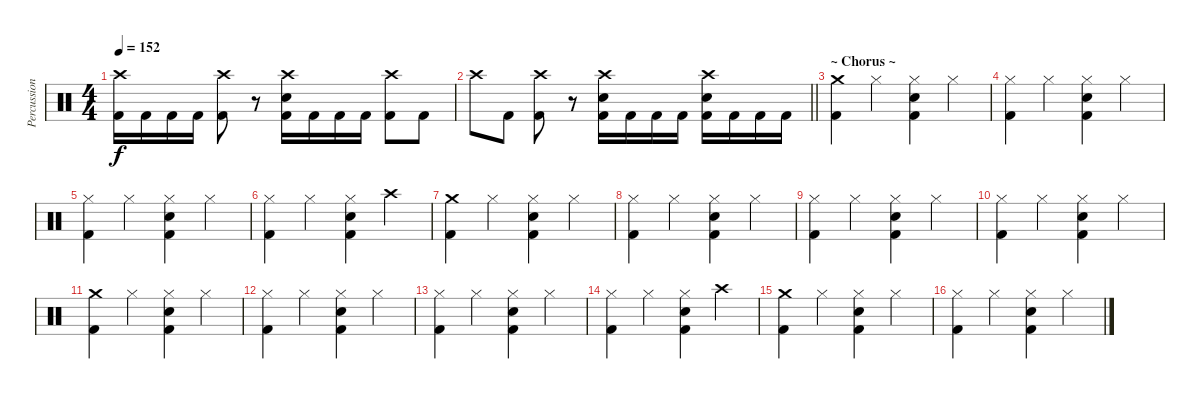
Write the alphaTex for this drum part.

\track ("Percussion" "Percussion") {instrument percussion}
\staff {score}
\articulation defaults
\ts (4 4)
\tempo 152
\clef neutral
\ks c
("Crash high (hit)" "Kick (hit) 2").16{dy f} "Kick (hit) 2".16 "Kick (hit) 2".16 "Kick (hit) 2".16 ("Crash high (hit)" "Kick (hit) 2").8 r.8 ("Crash high (hit)" "Electric Snare (hit)" "Kick (hit) 2").16 "Kick (hit) 2".16 "Kick (hit) 2".16 "Kick (hit) 2".16 ("Crash high (hit)" "Kick (hit) 2").8 "Kick (hit) 2".8 |
\barLineRight lightlight "Crash high (hit)".8 "Kick (hit) 2".8
("Crash high (hit)" "Kick (hit) 2").8 r.8 ("Crash high (hit)" "Electric Snare (hit)" "Kick (hit) 2").16 "Kick (hit) 2".16 "Kick (hit) 2".16 "Kick (hit) 2".16 ("Crash high (hit)" "Electric Snare (hit)" "Kick (hit) 2").16 "Kick (hit) 2".16 "Kick (hit) 2".16 "Kick (hit) 2".16 |
\section ("" "~ Chorus ~")
("Crash medium (hit)" "Kick (hit) 2").4 "Hi-Hat (closed)".4 ("Hi-Hat (closed)" "Electric Snare (hit)" "Kick (hit) 2").4 "Hi-Hat (closed)".4 |
("Hi-Hat (closed)" "Kick (hit) 2").4 "Hi-Hat (closed)".4 ("Hi-Hat (closed)" "Electric Snare (hit)" "Kick (hit) 2").4 "Hi-Hat (closed)".4 |
("Hi-Hat (closed)" "Kick (hit) 2").4 "Hi-Hat (closed)".4 ("Hi-Hat (closed)" "Electric Snare (hit)" "Kick (hit) 2").4 "Hi-Hat (closed)".4 |
("Hi-Hat (closed)" "Kick (hit) 2").4 "Hi-Hat (closed)".4 ("Hi-Hat (closed)" "Electric Snare (hit)" "Kick (hit) 2").4 "Crash high (hit)".4 |
("Crash medium (hit)" "Kick (hit) 2").4 "Hi-Hat (closed)".4 ("Hi-Hat (closed)" "Electric Snare (hit)" "Kick (hit) 2").4 "Hi-Hat (closed)".4 |
("Hi-Hat (closed)" "Kick (hit) 2").4 "Hi-Hat (closed)".4 ("Hi-Hat (closed)" "Electric Snare (hit)" "Kick (hit) 2").4 "Hi-Hat (closed)".4 |
("Hi-Hat (closed)" "Kick (hit) 2").4 "Hi-Hat (closed)".4 ("Hi-Hat (closed)" "Electric Snare (hit)" "Kick (hit) 2").4 "Hi-Hat (closed)".4 |
("Hi-Hat (closed)" "Kick (hit) 2").4 "Hi-Hat (closed)".4 ("Hi-Hat (closed)" "Electric Snare (hit)" "Kick (hit) 2").4 "Hi-Hat (closed)".4 |
("Crash medium (hit)" "Kick (hit) 2").4 "Hi-Hat (closed)".4 ("Hi-Hat (closed)" "Electric Snare (hit)" "Kick (hit) 2").4 "Hi-Hat (closed)".4 |
("Hi-Hat (closed)" "Kick (hit) 2").4 "Hi-Hat (closed)".4 ("Hi-Hat (closed)" "Electric Snare (hit)" "Kick (hit) 2").4 "Hi-Hat (closed)".4 |
("Hi-Hat (closed)" "Kick (hit) 2").4 "Hi-Hat (closed)".4 ("Hi-Hat (closed)" "Electric Snare (hit)" "Kick (hit) 2").4 "Hi-Hat (closed)".4 |
("Hi-Hat (closed)" "Kick (hit) 2").4 "Hi-Hat (closed)".4 ("Hi-Hat (closed)" "Electric Snare (hit)" "Kick (hit) 2").4 "Crash high (hit)".4 |
("Crash medium (hit)" "Kick (hit) 2").4 "Hi-Hat (closed)".4 ("Hi-Hat (closed)" "Electric Snare (hit)" "Kick (hit) 2").4 "Hi-Hat (closed)".4 |
("Hi-Hat (closed)" "Kick (hit) 2").4 "Hi-Hat (closed)".4 ("Hi-Hat (closed)" "Electric Snare (hit)" "Kick (hit) 2").4 "Hi-Hat (closed)".4
